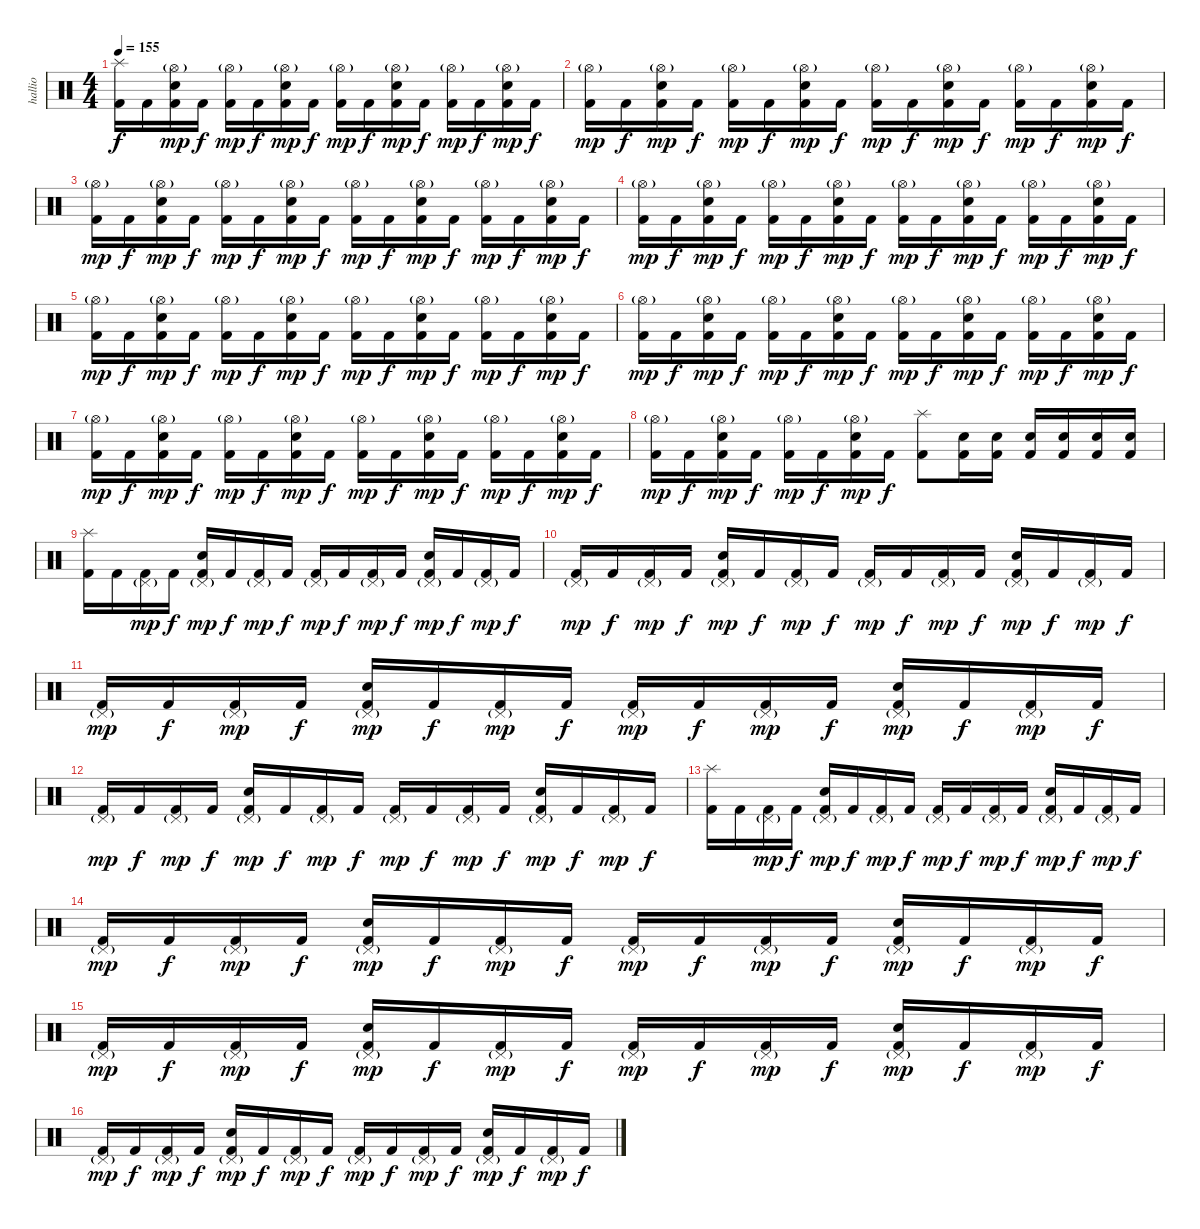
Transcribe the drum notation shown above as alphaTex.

\track ("hallio" "hallio") {instrument percussion}
\staff {score}
\articulation defaults
\ts (4 4)
\tempo 155
\clef neutral
\ks c
("Kick (hit) 2" "Splash (hit)").16{dy f} "Kick (hit) 2".16 ("Kick (hit) 2" "Snare (hit) 2" "Hi-Hat (open)"{g}).16{dy mp} "Kick (hit) 2".16{dy f} ("Kick (hit) 2" "Hi-Hat (open)"{g}).16{dy mp} "Kick (hit) 2".16{dy f} ("Kick (hit) 2" "Snare (hit) 2" "Hi-Hat (open)"{g}).16{dy mp} "Kick (hit) 2".16{dy f} ("Kick (hit) 2" "Hi-Hat (open)"{g}).16{dy mp} "Kick (hit) 2".16{dy f} ("Kick (hit) 2" "Snare (hit) 2" "Hi-Hat (open)"{g}).16{dy mp} "Kick (hit) 2".16{dy f} ("Kick (hit) 2" "Hi-Hat (open)"{g}).16{dy mp} "Kick (hit) 2".16{dy f} ("Kick (hit) 2" "Snare (hit) 2" "Hi-Hat (open)"{g}).16{dy mp} "Kick (hit) 2".16{dy f} |
("Kick (hit) 2" "Hi-Hat (open)"{g}).16{dy mp} "Kick (hit) 2".16{dy f} ("Kick (hit) 2" "Snare (hit) 2" "Hi-Hat (open)"{g}).16{dy mp} "Kick (hit) 2".16{dy f} ("Kick (hit) 2" "Hi-Hat (open)"{g}).16{dy mp} "Kick (hit) 2".16{dy f} ("Kick (hit) 2" "Snare (hit) 2" "Hi-Hat (open)"{g}).16{dy mp} "Kick (hit) 2".16{dy f} ("Kick (hit) 2" "Hi-Hat (open)"{g}).16{dy mp} "Kick (hit) 2".16{dy f} ("Kick (hit) 2" "Snare (hit) 2" "Hi-Hat (open)"{g}).16{dy mp} "Kick (hit) 2".16{dy f} ("Kick (hit) 2" "Hi-Hat (open)"{g}).16{dy mp} "Kick (hit) 2".16{dy f} ("Kick (hit) 2" "Snare (hit) 2" "Hi-Hat (open)"{g}).16{dy mp} "Kick (hit) 2".16{dy f} |
("Kick (hit) 2" "Hi-Hat (open)"{g}).16{dy mp} "Kick (hit) 2".16{dy f} ("Kick (hit) 2" "Snare (hit) 2" "Hi-Hat (open)"{g}).16{dy mp} "Kick (hit) 2".16{dy f} ("Kick (hit) 2" "Hi-Hat (open)"{g}).16{dy mp} "Kick (hit) 2".16{dy f} ("Kick (hit) 2" "Snare (hit) 2" "Hi-Hat (open)"{g}).16{dy mp} "Kick (hit) 2".16{dy f} ("Kick (hit) 2" "Hi-Hat (open)"{g}).16{dy mp} "Kick (hit) 2".16{dy f} ("Kick (hit) 2" "Snare (hit) 2" "Hi-Hat (open)"{g}).16{dy mp} "Kick (hit) 2".16{dy f} ("Kick (hit) 2" "Hi-Hat (open)"{g}).16{dy mp} "Kick (hit) 2".16{dy f} ("Kick (hit) 2" "Snare (hit) 2" "Hi-Hat (open)"{g}).16{dy mp} "Kick (hit) 2".16{dy f} |
("Kick (hit) 2" "Hi-Hat (open)"{g}).16{dy mp} "Kick (hit) 2".16{dy f} ("Kick (hit) 2" "Snare (hit) 2" "Hi-Hat (open)"{g}).16{dy mp} "Kick (hit) 2".16{dy f} ("Kick (hit) 2" "Hi-Hat (open)"{g}).16{dy mp} "Kick (hit) 2".16{dy f} ("Kick (hit) 2" "Snare (hit) 2" "Hi-Hat (open)"{g}).16{dy mp} "Kick (hit) 2".16{dy f} ("Kick (hit) 2" "Hi-Hat (open)"{g}).16{dy mp} "Kick (hit) 2".16{dy f} ("Kick (hit) 2" "Snare (hit) 2" "Hi-Hat (open)"{g}).16{dy mp} "Kick (hit) 2".16{dy f} ("Kick (hit) 2" "Hi-Hat (open)"{g}).16{dy mp} "Kick (hit) 2".16{dy f} ("Kick (hit) 2" "Snare (hit) 2" "Hi-Hat (open)"{g}).16{dy mp} "Kick (hit) 2".16{dy f} |
("Kick (hit) 2" "Hi-Hat (open)"{g}).16{dy mp} "Kick (hit) 2".16{dy f} ("Kick (hit) 2" "Snare (hit) 2" "Hi-Hat (open)"{g}).16{dy mp} "Kick (hit) 2".16{dy f} ("Kick (hit) 2" "Hi-Hat (open)"{g}).16{dy mp} "Kick (hit) 2".16{dy f} ("Kick (hit) 2" "Snare (hit) 2" "Hi-Hat (open)"{g}).16{dy mp} "Kick (hit) 2".16{dy f} ("Kick (hit) 2" "Hi-Hat (open)"{g}).16{dy mp} "Kick (hit) 2".16{dy f} ("Kick (hit) 2" "Snare (hit) 2" "Hi-Hat (open)"{g}).16{dy mp} "Kick (hit) 2".16{dy f} ("Kick (hit) 2" "Hi-Hat (open)"{g}).16{dy mp} "Kick (hit) 2".16{dy f} ("Kick (hit) 2" "Snare (hit) 2" "Hi-Hat (open)"{g}).16{dy mp} "Kick (hit) 2".16{dy f} |
("Kick (hit) 2" "Hi-Hat (open)"{g}).16{dy mp} "Kick (hit) 2".16{dy f} ("Kick (hit) 2" "Snare (hit) 2" "Hi-Hat (open)"{g}).16{dy mp} "Kick (hit) 2".16{dy f} ("Kick (hit) 2" "Hi-Hat (open)"{g}).16{dy mp} "Kick (hit) 2".16{dy f} ("Kick (hit) 2" "Snare (hit) 2" "Hi-Hat (open)"{g}).16{dy mp} "Kick (hit) 2".16{dy f} ("Kick (hit) 2" "Hi-Hat (open)"{g}).16{dy mp} "Kick (hit) 2".16{dy f} ("Kick (hit) 2" "Snare (hit) 2" "Hi-Hat (open)"{g}).16{dy mp} "Kick (hit) 2".16{dy f} ("Kick (hit) 2" "Hi-Hat (open)"{g}).16{dy mp} "Kick (hit) 2".16{dy f} ("Kick (hit) 2" "Snare (hit) 2" "Hi-Hat (open)"{g}).16{dy mp} "Kick (hit) 2".16{dy f} |
("Kick (hit) 2" "Hi-Hat (open)"{g}).16{dy mp} "Kick (hit) 2".16{dy f} ("Kick (hit) 2" "Snare (hit) 2" "Hi-Hat (open)"{g}).16{dy mp} "Kick (hit) 2".16{dy f} ("Kick (hit) 2" "Hi-Hat (open)"{g}).16{dy mp} "Kick (hit) 2".16{dy f} ("Kick (hit) 2" "Snare (hit) 2" "Hi-Hat (open)"{g}).16{dy mp} "Kick (hit) 2".16{dy f} ("Kick (hit) 2" "Hi-Hat (open)"{g}).16{dy mp} "Kick (hit) 2".16{dy f} ("Kick (hit) 2" "Snare (hit) 2" "Hi-Hat (open)"{g}).16{dy mp} "Kick (hit) 2".16{dy f} ("Kick (hit) 2" "Hi-Hat (open)"{g}).16{dy mp} "Kick (hit) 2".16{dy f} ("Kick (hit) 2" "Snare (hit) 2" "Hi-Hat (open)"{g}).16{dy mp} "Kick (hit) 2".16{dy f} |
("Kick (hit) 2" "Hi-Hat (open)"{g}).16{dy mp} "Kick (hit) 2".16{dy f} ("Kick (hit) 2" "Snare (hit) 2" "Hi-Hat (open)"{g}).16{dy mp} "Kick (hit) 2".16{dy f} ("Kick (hit) 2" "Hi-Hat (open)"{g}).16{dy mp} "Kick (hit) 2".16{dy f} ("Kick (hit) 2" "Snare (hit) 2" "Hi-Hat (open)"{g}).16{dy mp} "Kick (hit) 2".16{dy f} ("Kick (hit) 2" "Splash (hit)").8 ("Kick (hit) 2" "Snare (hit) 2").16 ("Kick (hit) 2" "Snare (hit) 2").16 ("Kick (hit) 2" "Snare (hit) 2").16 ("Kick (hit) 2" "Snare (hit) 2").16 ("Kick (hit) 2" "Snare (hit) 2").16 ("Kick (hit) 2" "Snare (hit) 2").16 |
("Kick (hit) 2" "Splash (hit)").16 "Kick (hit) 2".16 ("Kick (hit) 2" "Pedal Hi-Hat (hit)"{g}).16{dy mp} "Kick (hit) 2".16{dy f} ("Kick (hit) 2" "Snare (hit) 2" "Pedal Hi-Hat (hit)"{g}).16{dy mp} "Kick (hit) 2".16{dy f} ("Kick (hit) 2" "Pedal Hi-Hat (hit)"{g}).16{dy mp} "Kick (hit) 2".16{dy f} ("Kick (hit) 2" "Pedal Hi-Hat (hit)"{g}).16{dy mp} "Kick (hit) 2".16{dy f} ("Kick (hit) 2" "Pedal Hi-Hat (hit)"{g}).16{dy mp} "Kick (hit) 2".16{dy f} ("Kick (hit) 2" "Snare (hit) 2" "Pedal Hi-Hat (hit)"{g}).16{dy mp} "Kick (hit) 2".16{dy f} ("Kick (hit) 2" "Pedal Hi-Hat (hit)"{g}).16{dy mp} "Kick (hit) 2".16{dy f} |
("Kick (hit) 2" "Pedal Hi-Hat (hit)"{g}).16{dy mp} "Kick (hit) 2".16{dy f} ("Kick (hit) 2" "Pedal Hi-Hat (hit)"{g}).16{dy mp} "Kick (hit) 2".16{dy f} ("Kick (hit) 2" "Snare (hit) 2" "Pedal Hi-Hat (hit)"{g}).16{dy mp} "Kick (hit) 2".16{dy f} ("Kick (hit) 2" "Pedal Hi-Hat (hit)"{g}).16{dy mp} "Kick (hit) 2".16{dy f} ("Kick (hit) 2" "Pedal Hi-Hat (hit)"{g}).16{dy mp} "Kick (hit) 2".16{dy f} ("Kick (hit) 2" "Pedal Hi-Hat (hit)"{g}).16{dy mp} "Kick (hit) 2".16{dy f} ("Kick (hit) 2" "Snare (hit) 2" "Pedal Hi-Hat (hit)"{g}).16{dy mp} "Kick (hit) 2".16{dy f} ("Kick (hit) 2" "Pedal Hi-Hat (hit)"{g}).16{dy mp} "Kick (hit) 2".16{dy f} |
("Kick (hit) 2" "Pedal Hi-Hat (hit)"{g}).16{dy mp} "Kick (hit) 2".16{dy f} ("Kick (hit) 2" "Pedal Hi-Hat (hit)"{g}).16{dy mp} "Kick (hit) 2".16{dy f} ("Kick (hit) 2" "Snare (hit) 2" "Pedal Hi-Hat (hit)"{g}).16{dy mp} "Kick (hit) 2".16{dy f} ("Kick (hit) 2" "Pedal Hi-Hat (hit)"{g}).16{dy mp} "Kick (hit) 2".16{dy f} ("Kick (hit) 2" "Pedal Hi-Hat (hit)"{g}).16{dy mp} "Kick (hit) 2".16{dy f} ("Kick (hit) 2" "Pedal Hi-Hat (hit)"{g}).16{dy mp} "Kick (hit) 2".16{dy f} ("Kick (hit) 2" "Snare (hit) 2" "Pedal Hi-Hat (hit)"{g}).16{dy mp} "Kick (hit) 2".16{dy f} ("Kick (hit) 2" "Pedal Hi-Hat (hit)"{g}).16{dy mp} "Kick (hit) 2".16{dy f} |
("Kick (hit) 2" "Pedal Hi-Hat (hit)"{g}).16{dy mp} "Kick (hit) 2".16{dy f} ("Kick (hit) 2" "Pedal Hi-Hat (hit)"{g}).16{dy mp} "Kick (hit) 2".16{dy f} ("Kick (hit) 2" "Snare (hit) 2" "Pedal Hi-Hat (hit)"{g}).16{dy mp} "Kick (hit) 2".16{dy f} ("Kick (hit) 2" "Pedal Hi-Hat (hit)"{g}).16{dy mp} "Kick (hit) 2".16{dy f} ("Kick (hit) 2" "Pedal Hi-Hat (hit)"{g}).16{dy mp} "Kick (hit) 2".16{dy f} ("Kick (hit) 2" "Pedal Hi-Hat (hit)"{g}).16{dy mp} "Kick (hit) 2".16{dy f} ("Kick (hit) 2" "Snare (hit) 2" "Pedal Hi-Hat (hit)"{g}).16{dy mp} "Kick (hit) 2".16{dy f} ("Kick (hit) 2" "Pedal Hi-Hat (hit)"{g}).16{dy mp} "Kick (hit) 2".16{dy f} |
("Kick (hit) 2" "Splash (hit)").16 "Kick (hit) 2".16 ("Kick (hit) 2" "Pedal Hi-Hat (hit)"{g}).16{dy mp} "Kick (hit) 2".16{dy f} ("Kick (hit) 2" "Snare (hit) 2" "Pedal Hi-Hat (hit)"{g}).16{dy mp} "Kick (hit) 2".16{dy f} ("Kick (hit) 2" "Pedal Hi-Hat (hit)"{g}).16{dy mp} "Kick (hit) 2".16{dy f} ("Kick (hit) 2" "Pedal Hi-Hat (hit)"{g}).16{dy mp} "Kick (hit) 2".16{dy f} ("Kick (hit) 2" "Pedal Hi-Hat (hit)"{g}).16{dy mp} "Kick (hit) 2".16{dy f} ("Kick (hit) 2" "Snare (hit) 2" "Pedal Hi-Hat (hit)"{g}).16{dy mp} "Kick (hit) 2".16{dy f} ("Kick (hit) 2" "Pedal Hi-Hat (hit)"{g}).16{dy mp} "Kick (hit) 2".16{dy f} |
("Kick (hit) 2" "Pedal Hi-Hat (hit)"{g}).16{dy mp} "Kick (hit) 2".16{dy f} ("Kick (hit) 2" "Pedal Hi-Hat (hit)"{g}).16{dy mp} "Kick (hit) 2".16{dy f} ("Kick (hit) 2" "Snare (hit) 2" "Pedal Hi-Hat (hit)"{g}).16{dy mp} "Kick (hit) 2".16{dy f} ("Kick (hit) 2" "Pedal Hi-Hat (hit)"{g}).16{dy mp} "Kick (hit) 2".16{dy f} ("Kick (hit) 2" "Pedal Hi-Hat (hit)"{g}).16{dy mp} "Kick (hit) 2".16{dy f} ("Kick (hit) 2" "Pedal Hi-Hat (hit)"{g}).16{dy mp} "Kick (hit) 2".16{dy f} ("Kick (hit) 2" "Snare (hit) 2" "Pedal Hi-Hat (hit)"{g}).16{dy mp} "Kick (hit) 2".16{dy f} ("Kick (hit) 2" "Pedal Hi-Hat (hit)"{g}).16{dy mp} "Kick (hit) 2".16{dy f} |
("Kick (hit) 2" "Pedal Hi-Hat (hit)"{g}).16{dy mp} "Kick (hit) 2".16{dy f} ("Kick (hit) 2" "Pedal Hi-Hat (hit)"{g}).16{dy mp} "Kick (hit) 2".16{dy f} ("Kick (hit) 2" "Snare (hit) 2" "Pedal Hi-Hat (hit)"{g}).16{dy mp} "Kick (hit) 2".16{dy f} ("Kick (hit) 2" "Pedal Hi-Hat (hit)"{g}).16{dy mp} "Kick (hit) 2".16{dy f} ("Kick (hit) 2" "Pedal Hi-Hat (hit)"{g}).16{dy mp} "Kick (hit) 2".16{dy f} ("Kick (hit) 2" "Pedal Hi-Hat (hit)"{g}).16{dy mp} "Kick (hit) 2".16{dy f} ("Kick (hit) 2" "Snare (hit) 2" "Pedal Hi-Hat (hit)"{g}).16{dy mp} "Kick (hit) 2".16{dy f} ("Kick (hit) 2" "Pedal Hi-Hat (hit)"{g}).16{dy mp} "Kick (hit) 2".16{dy f} |
("Kick (hit) 2" "Pedal Hi-Hat (hit)"{g}).16{dy mp} "Kick (hit) 2".16{dy f} ("Kick (hit) 2" "Pedal Hi-Hat (hit)"{g}).16{dy mp} "Kick (hit) 2".16{dy f} ("Kick (hit) 2" "Snare (hit) 2" "Pedal Hi-Hat (hit)"{g}).16{dy mp} "Kick (hit) 2".16{dy f} ("Kick (hit) 2" "Pedal Hi-Hat (hit)"{g}).16{dy mp} "Kick (hit) 2".16{dy f} ("Kick (hit) 2" "Pedal Hi-Hat (hit)"{g}).16{dy mp} "Kick (hit) 2".16{dy f} ("Kick (hit) 2" "Pedal Hi-Hat (hit)"{g}).16{dy mp} "Kick (hit) 2".16{dy f} ("Kick (hit) 2" "Snare (hit) 2" "Pedal Hi-Hat (hit)"{g}).16{dy mp} "Kick (hit) 2".16{dy f} ("Kick (hit) 2" "Pedal Hi-Hat (hit)"{g}).16{dy mp} "Kick (hit) 2".16{dy f}
